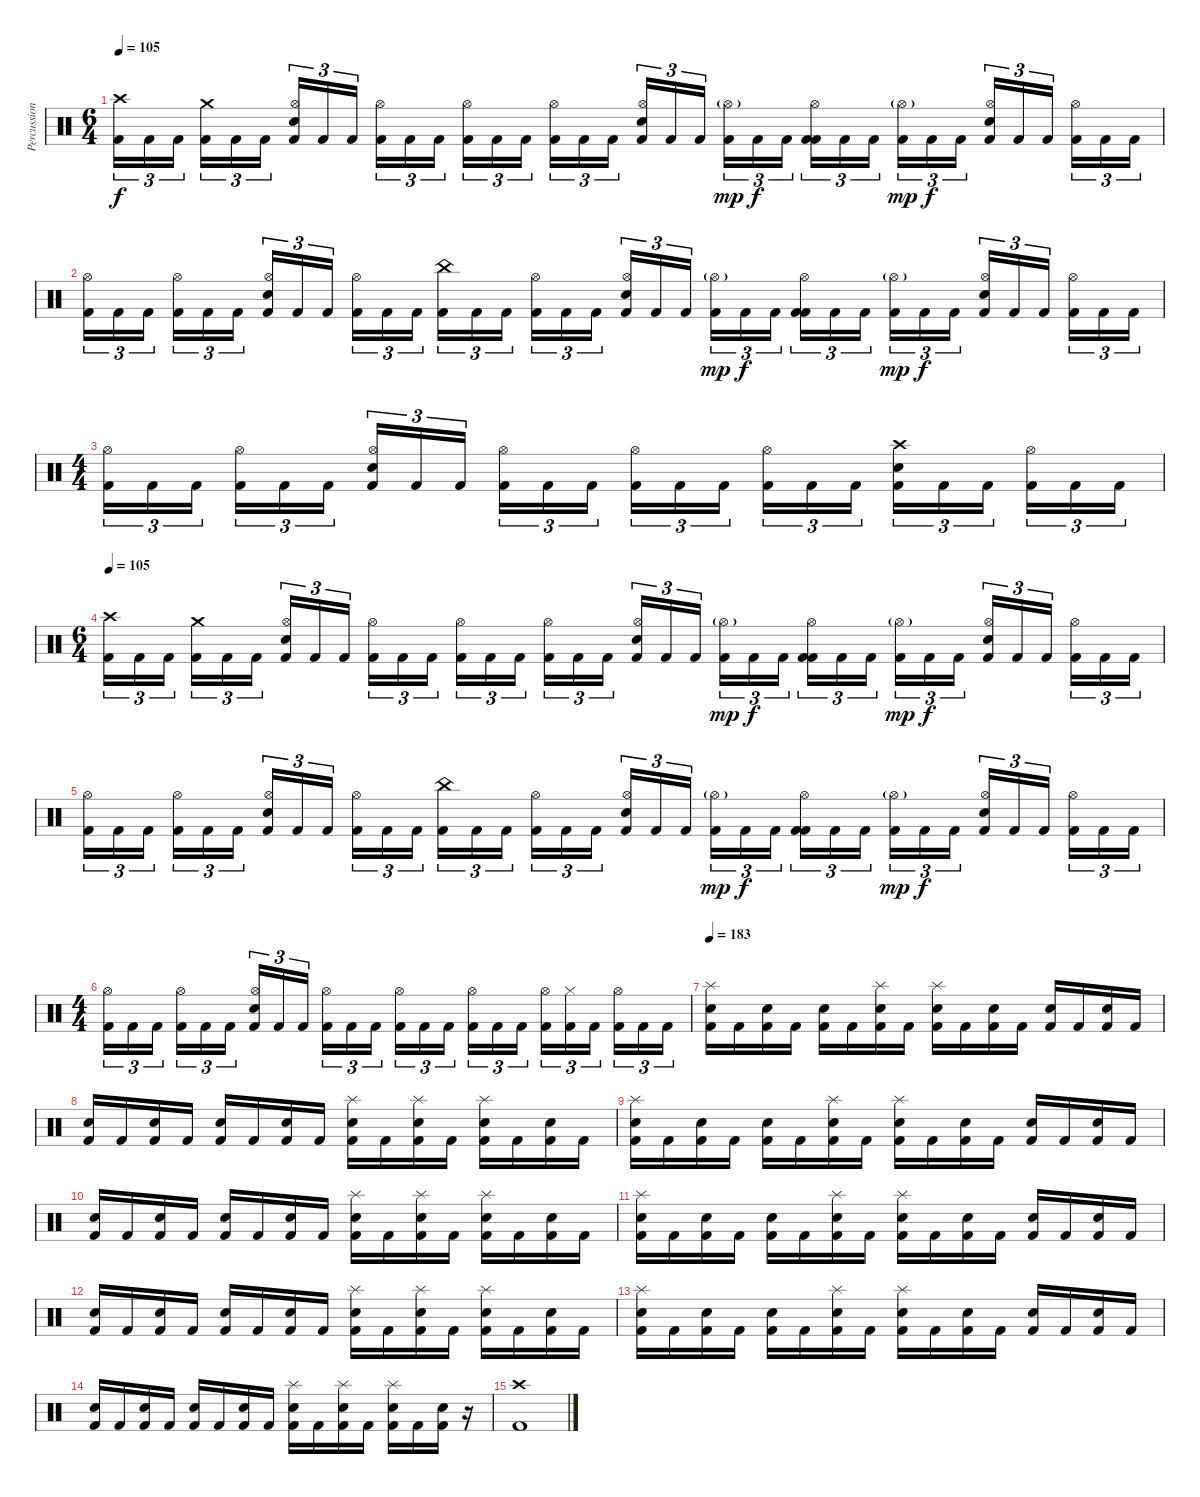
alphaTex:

\track ("Percussion" "Percussion") {instrument percussion}
\staff {score}
\articulation defaults
\ts (6 4)
\tempo 105
\clef neutral
\ks c
("Crash high (hit)" "Kick (hit) 2").16{tu (3 2) dy f} "Kick (hit) 2".16{tu (3 2)} "Kick (hit) 2".16{tu (3 2)} ("Crash medium (hit)" "Kick (hit) 2").16{tu (3 2)} "Kick (hit) 2".16{tu (3 2)} "Kick (hit) 2".16{tu (3 2)} ("Hi-Hat (open)" "Electric Snare (hit)" "Kick (hit) 2").16{tu (3 2)} "Kick (hit) 2".16{tu (3 2)} "Kick (hit) 2".16{tu (3 2)} ("Hi-Hat (open)" "Kick (hit) 2").16{tu (3 2)} "Kick (hit) 2".16{tu (3 2)} "Kick (hit) 2".16{tu (3 2)} ("Hi-Hat (open)" "Kick (hit) 2").16{tu (3 2)} "Kick (hit) 2".16{tu (3 2)} "Kick (hit) 2".16{tu (3 2)} ("Hi-Hat (open)" "Kick (hit) 2").16{tu (3 2)} "Kick (hit) 2".16{tu (3 2)} "Kick (hit) 2".16{tu (3 2)} ("Hi-Hat (open)" "Electric Snare (hit)" "Kick (hit) 2").16{tu (3 2)} "Kick (hit) 2".16{tu (3 2)} "Kick (hit) 2".16{tu (3 2)} ("Hi-Hat (open)"{g} "Kick (hit) 2").16{tu (3 2) dy mp} "Kick (hit) 2".16{tu (3 2) dy f} "Kick (hit) 2".16{tu (3 2)} ("Hi-Hat (open)" "Kick (hit) 2" "Kick (hit) 2").16{tu (3 2)} "Kick (hit) 2".16{tu (3 2)} "Kick (hit) 2".16{tu (3 2)} ("Hi-Hat (open)"{g} "Kick (hit) 2").16{tu (3 2) dy mp} "Kick (hit) 2".16{tu (3 2) dy f} "Kick (hit) 2".16{tu (3 2)} ("Hi-Hat (open)" "Electric Snare (hit)" "Kick (hit) 2").16{tu (3 2)} "Kick (hit) 2".16{tu (3 2)} "Kick (hit) 2".16{tu (3 2)} ("Hi-Hat (open)" "Kick (hit) 2").16{tu (3 2)} "Kick (hit) 2".16{tu (3 2)} "Kick (hit) 2".16{tu (3 2)} |
("Hi-Hat (open)" "Kick (hit) 2").16{tu (3 2)} "Kick (hit) 2".16{tu (3 2)} "Kick (hit) 2".16{tu (3 2)} ("Hi-Hat (open)" "Kick (hit) 2").16{tu (3 2)} "Kick (hit) 2".16{tu (3 2)} "Kick (hit) 2".16{tu (3 2)} ("Hi-Hat (open)" "Electric Snare (hit)" "Kick (hit) 2").16{tu (3 2)} "Kick (hit) 2".16{tu (3 2)} "Kick (hit) 2".16{tu (3 2)} ("Hi-Hat (open)" "Kick (hit) 2").16{tu (3 2)} "Kick (hit) 2".16{tu (3 2)} "Kick (hit) 2".16{tu (3 2)} ("China (hit)" "Kick (hit) 2").16{tu (3 2)} "Kick (hit) 2".16{tu (3 2)} "Kick (hit) 2".16{tu (3 2)} ("Hi-Hat (open)" "Kick (hit) 2").16{tu (3 2)} "Kick (hit) 2".16{tu (3 2)} "Kick (hit) 2".16{tu (3 2)} ("Hi-Hat (open)" "Electric Snare (hit)" "Kick (hit) 2").16{tu (3 2)} "Kick (hit) 2".16{tu (3 2)} "Kick (hit) 2".16{tu (3 2)} ("Hi-Hat (open)"{g} "Kick (hit) 2").16{tu (3 2) dy mp} "Kick (hit) 2".16{tu (3 2) dy f} "Kick (hit) 2".16{tu (3 2)} ("Hi-Hat (open)" "Kick (hit) 2" "Kick (hit) 2").16{tu (3 2)} "Kick (hit) 2".16{tu (3 2)} "Kick (hit) 2".16{tu (3 2)} ("Hi-Hat (open)"{g} "Kick (hit) 2").16{tu (3 2) dy mp} "Kick (hit) 2".16{tu (3 2) dy f} "Kick (hit) 2".16{tu (3 2)} ("Hi-Hat (open)" "Electric Snare (hit)" "Kick (hit) 2").16{tu (3 2)} "Kick (hit) 2".16{tu (3 2)} "Kick (hit) 2".16{tu (3 2)} ("Hi-Hat (open)" "Kick (hit) 2").16{tu (3 2)} "Kick (hit) 2".16{tu (3 2)} "Kick (hit) 2".16{tu (3 2)} |
\ts (4 4)
("Hi-Hat (open)" "Kick (hit) 2").16{tu (3 2)} "Kick (hit) 2".16{tu (3 2)} "Kick (hit) 2".16{tu (3 2)} ("Hi-Hat (open)" "Kick (hit) 2").16{tu (3 2)} "Kick (hit) 2".16{tu (3 2)} "Kick (hit) 2".16{tu (3 2)} ("Hi-Hat (open)" "Electric Snare (hit)" "Kick (hit) 2").16{tu (3 2)} "Kick (hit) 2".16{tu (3 2)} "Kick (hit) 2".16{tu (3 2)} ("Hi-Hat (open)" "Kick (hit) 2").16{tu (3 2)} "Kick (hit) 2".16{tu (3 2)} "Kick (hit) 2".16{tu (3 2)} ("Hi-Hat (open)" "Kick (hit) 2").16{tu (3 2)} "Kick (hit) 2".16{tu (3 2)} "Kick (hit) 2".16{tu (3 2)} ("Hi-Hat (open)" "Kick (hit) 2").16{tu (3 2)} "Kick (hit) 2".16{tu (3 2)} "Kick (hit) 2".16{tu (3 2)} ("Crash high (hit)" "Electric Snare (hit)" "Kick (hit) 2").16{tu (3 2)} "Kick (hit) 2".16{tu (3 2)} "Kick (hit) 2".16{tu (3 2)} ("Hi-Hat (open)" "Kick (hit) 2").16{tu (3 2)} "Kick (hit) 2".16{tu (3 2)} "Kick (hit) 2".16{tu (3 2)} |
\ts (6 4)
\tempo 105
("Crash high (hit)" "Kick (hit) 2").16{tu (3 2)} "Kick (hit) 2".16{tu (3 2)} "Kick (hit) 2".16{tu (3 2)} ("Crash medium (hit)" "Kick (hit) 2").16{tu (3 2)} "Kick (hit) 2".16{tu (3 2)} "Kick (hit) 2".16{tu (3 2)} ("Hi-Hat (open)" "Electric Snare (hit)" "Kick (hit) 2").16{tu (3 2)} "Kick (hit) 2".16{tu (3 2)} "Kick (hit) 2".16{tu (3 2)} ("Hi-Hat (open)" "Kick (hit) 2").16{tu (3 2)} "Kick (hit) 2".16{tu (3 2)} "Kick (hit) 2".16{tu (3 2)} ("Hi-Hat (open)" "Kick (hit) 2").16{tu (3 2)} "Kick (hit) 2".16{tu (3 2)} "Kick (hit) 2".16{tu (3 2)} ("Hi-Hat (open)" "Kick (hit) 2").16{tu (3 2)} "Kick (hit) 2".16{tu (3 2)} "Kick (hit) 2".16{tu (3 2)} ("Hi-Hat (open)" "Electric Snare (hit)" "Kick (hit) 2").16{tu (3 2)} "Kick (hit) 2".16{tu (3 2)} "Kick (hit) 2".16{tu (3 2)} ("Hi-Hat (open)"{g} "Kick (hit) 2").16{tu (3 2) dy mp} "Kick (hit) 2".16{tu (3 2) dy f} "Kick (hit) 2".16{tu (3 2)} ("Hi-Hat (open)" "Kick (hit) 2" "Kick (hit) 2").16{tu (3 2)} "Kick (hit) 2".16{tu (3 2)} "Kick (hit) 2".16{tu (3 2)} ("Hi-Hat (open)"{g} "Kick (hit) 2").16{tu (3 2) dy mp} "Kick (hit) 2".16{tu (3 2) dy f} "Kick (hit) 2".16{tu (3 2)} ("Hi-Hat (open)" "Electric Snare (hit)" "Kick (hit) 2").16{tu (3 2)} "Kick (hit) 2".16{tu (3 2)} "Kick (hit) 2".16{tu (3 2)} ("Hi-Hat (open)" "Kick (hit) 2").16{tu (3 2)} "Kick (hit) 2".16{tu (3 2)} "Kick (hit) 2".16{tu (3 2)} |
("Hi-Hat (open)" "Kick (hit) 2").16{tu (3 2)} "Kick (hit) 2".16{tu (3 2)} "Kick (hit) 2".16{tu (3 2)} ("Hi-Hat (open)" "Kick (hit) 2").16{tu (3 2)} "Kick (hit) 2".16{tu (3 2)} "Kick (hit) 2".16{tu (3 2)} ("Hi-Hat (open)" "Electric Snare (hit)" "Kick (hit) 2").16{tu (3 2)} "Kick (hit) 2".16{tu (3 2)} "Kick (hit) 2".16{tu (3 2)} ("Hi-Hat (open)" "Kick (hit) 2").16{tu (3 2)} "Kick (hit) 2".16{tu (3 2)} "Kick (hit) 2".16{tu (3 2)} ("China (hit)" "Kick (hit) 2").16{tu (3 2)} "Kick (hit) 2".16{tu (3 2)} "Kick (hit) 2".16{tu (3 2)} ("Hi-Hat (open)" "Kick (hit) 2").16{tu (3 2)} "Kick (hit) 2".16{tu (3 2)} "Kick (hit) 2".16{tu (3 2)} ("Hi-Hat (open)" "Electric Snare (hit)" "Kick (hit) 2").16{tu (3 2)} "Kick (hit) 2".16{tu (3 2)} "Kick (hit) 2".16{tu (3 2)} ("Hi-Hat (open)"{g} "Kick (hit) 2").16{tu (3 2) dy mp} "Kick (hit) 2".16{tu (3 2) dy f} "Kick (hit) 2".16{tu (3 2)} ("Hi-Hat (open)" "Kick (hit) 2" "Kick (hit) 2").16{tu (3 2)} "Kick (hit) 2".16{tu (3 2)} "Kick (hit) 2".16{tu (3 2)} ("Hi-Hat (open)"{g} "Kick (hit) 2").16{tu (3 2) dy mp} "Kick (hit) 2".16{tu (3 2) dy f} "Kick (hit) 2".16{tu (3 2)} ("Hi-Hat (open)" "Electric Snare (hit)" "Kick (hit) 2").16{tu (3 2)} "Kick (hit) 2".16{tu (3 2)} "Kick (hit) 2".16{tu (3 2)} ("Hi-Hat (open)" "Kick (hit) 2").16{tu (3 2)} "Kick (hit) 2".16{tu (3 2)} "Kick (hit) 2".16{tu (3 2)} |
\ts (4 4)
("Hi-Hat (open)" "Kick (hit) 2").16{tu (3 2)} "Kick (hit) 2".16{tu (3 2)} "Kick (hit) 2".16{tu (3 2)} ("Hi-Hat (open)" "Kick (hit) 2").16{tu (3 2)} "Kick (hit) 2".16{tu (3 2)} "Kick (hit) 2".16{tu (3 2)} ("Hi-Hat (open)" "Electric Snare (hit)" "Kick (hit) 2").16{tu (3 2)} "Kick (hit) 2".16{tu (3 2)} "Kick (hit) 2".16{tu (3 2)} ("Hi-Hat (open)" "Kick (hit) 2").16{tu (3 2)} "Kick (hit) 2".16{tu (3 2)} "Kick (hit) 2".16{tu (3 2)} ("Hi-Hat (open)" "Kick (hit) 2").16{tu (3 2)} "Kick (hit) 2".16{tu (3 2)} "Kick (hit) 2".16{tu (3 2)} ("Hi-Hat (open)" "Kick (hit) 2").16{tu (3 2)} "Kick (hit) 2".16{tu (3 2)} "Kick (hit) 2".16{tu (3 2)} ("Hi-Hat (open)" "Kick (hit) 2").16{tu (3 2)} ("Hi-Hat (closed)" "Kick (hit) 2").16{tu (3 2)} "Kick (hit) 2".16{tu (3 2)} ("Hi-Hat (open)" "Kick (hit) 2").16{tu (3 2)} "Kick (hit) 2".16{tu (3 2)} "Kick (hit) 2".16{tu (3 2)} |
\tempo 183
("Splash (hit)" "Electric Snare (hit)" "Kick (hit) 2").16 "Kick (hit) 2".16 ("Electric Snare (hit)" "Kick (hit) 2").16 "Kick (hit) 2".16 ("Electric Snare (hit)" "Kick (hit) 2").16 "Kick (hit) 2".16 ("Splash (hit)" "Electric Snare (hit)" "Kick (hit) 2").16 "Kick (hit) 2".16 ("Splash (hit)" "Electric Snare (hit)" "Kick (hit) 2").16 "Kick (hit) 2".16 ("Electric Snare (hit)" "Kick (hit) 2").16 "Kick (hit) 2".16 ("Electric Snare (hit)" "Kick (hit) 2").16 "Kick (hit) 2".16 ("Electric Snare (hit)" "Kick (hit) 2").16 "Kick (hit) 2".16 |
("Electric Snare (hit)" "Kick (hit) 2").16 "Kick (hit) 2".16 ("Electric Snare (hit)" "Kick (hit) 2").16 "Kick (hit) 2".16 ("Electric Snare (hit)" "Kick (hit) 2").16 "Kick (hit) 2".16 ("Electric Snare (hit)" "Kick (hit) 2").16 "Kick (hit) 2".16 ("Splash (hit)" "Electric Snare (hit)" "Kick (hit) 2").16 "Kick (hit) 2".16 ("Splash (hit)" "Electric Snare (hit)" "Kick (hit) 2").16 "Kick (hit) 2".16 ("Splash (hit)" "Electric Snare (hit)" "Kick (hit) 2").16 "Kick (hit) 2".16 ("Electric Snare (hit)" "Kick (hit) 2").16 "Kick (hit) 2".16 |
("Splash (hit)" "Electric Snare (hit)" "Kick (hit) 2").16 "Kick (hit) 2".16 ("Electric Snare (hit)" "Kick (hit) 2").16 "Kick (hit) 2".16 ("Electric Snare (hit)" "Kick (hit) 2").16 "Kick (hit) 2".16 ("Splash (hit)" "Electric Snare (hit)" "Kick (hit) 2").16 "Kick (hit) 2".16 ("Splash (hit)" "Electric Snare (hit)" "Kick (hit) 2").16 "Kick (hit) 2".16 ("Electric Snare (hit)" "Kick (hit) 2").16 "Kick (hit) 2".16 ("Electric Snare (hit)" "Kick (hit) 2").16 "Kick (hit) 2".16 ("Electric Snare (hit)" "Kick (hit) 2").16 "Kick (hit) 2".16 |
("Electric Snare (hit)" "Kick (hit) 2").16 "Kick (hit) 2".16 ("Electric Snare (hit)" "Kick (hit) 2").16 "Kick (hit) 2".16 ("Electric Snare (hit)" "Kick (hit) 2").16 "Kick (hit) 2".16 ("Electric Snare (hit)" "Kick (hit) 2").16 "Kick (hit) 2".16 ("Splash (hit)" "Electric Snare (hit)" "Kick (hit) 2").16 "Kick (hit) 2".16 ("Splash (hit)" "Electric Snare (hit)" "Kick (hit) 2").16 "Kick (hit) 2".16 ("Splash (hit)" "Electric Snare (hit)" "Kick (hit) 2").16 "Kick (hit) 2".16 ("Electric Snare (hit)" "Kick (hit) 2").16 "Kick (hit) 2".16 |
("Splash (hit)" "Electric Snare (hit)" "Kick (hit) 2").16 "Kick (hit) 2".16 ("Electric Snare (hit)" "Kick (hit) 2").16 "Kick (hit) 2".16 ("Electric Snare (hit)" "Kick (hit) 2").16 "Kick (hit) 2".16 ("Splash (hit)" "Electric Snare (hit)" "Kick (hit) 2").16 "Kick (hit) 2".16 ("Splash (hit)" "Electric Snare (hit)" "Kick (hit) 2").16 "Kick (hit) 2".16 ("Electric Snare (hit)" "Kick (hit) 2").16 "Kick (hit) 2".16 ("Electric Snare (hit)" "Kick (hit) 2").16 "Kick (hit) 2".16 ("Electric Snare (hit)" "Kick (hit) 2").16 "Kick (hit) 2".16 |
("Electric Snare (hit)" "Kick (hit) 2").16 "Kick (hit) 2".16 ("Electric Snare (hit)" "Kick (hit) 2").16 "Kick (hit) 2".16 ("Electric Snare (hit)" "Kick (hit) 2").16 "Kick (hit) 2".16 ("Electric Snare (hit)" "Kick (hit) 2").16 "Kick (hit) 2".16 ("Splash (hit)" "Electric Snare (hit)" "Kick (hit) 2").16 "Kick (hit) 2".16 ("Splash (hit)" "Electric Snare (hit)" "Kick (hit) 2").16 "Kick (hit) 2".16 ("Splash (hit)" "Electric Snare (hit)" "Kick (hit) 2").16 "Kick (hit) 2".16 ("Electric Snare (hit)" "Kick (hit) 2").16 "Kick (hit) 2".16 |
("Splash (hit)" "Electric Snare (hit)" "Kick (hit) 2").16 "Kick (hit) 2".16 ("Electric Snare (hit)" "Kick (hit) 2").16 "Kick (hit) 2".16 ("Electric Snare (hit)" "Kick (hit) 2").16 "Kick (hit) 2".16 ("Splash (hit)" "Electric Snare (hit)" "Kick (hit) 2").16 "Kick (hit) 2".16 ("Splash (hit)" "Electric Snare (hit)" "Kick (hit) 2").16 "Kick (hit) 2".16 ("Electric Snare (hit)" "Kick (hit) 2").16 "Kick (hit) 2".16 ("Electric Snare (hit)" "Kick (hit) 2").16 "Kick (hit) 2".16 ("Electric Snare (hit)" "Kick (hit) 2").16 "Kick (hit) 2".16 |
("Electric Snare (hit)" "Kick (hit) 2").16 "Kick (hit) 2".16 ("Electric Snare (hit)" "Kick (hit) 2").16 "Kick (hit) 2".16 ("Electric Snare (hit)" "Kick (hit) 2").16 "Kick (hit) 2".16 ("Electric Snare (hit)" "Kick (hit) 2").16 "Kick (hit) 2".16 ("Splash (hit)" "Electric Snare (hit)" "Kick (hit) 2").16 "Kick (hit) 2".16 ("Splash (hit)" "Electric Snare (hit)" "Kick (hit) 2").16 "Kick (hit) 2".16 ("Splash (hit)" "Electric Snare (hit)" "Kick (hit) 2").16 "Kick (hit) 2".16 ("Electric Snare (hit)" "Kick (hit) 2").16 r.16 |
("Crash high (hit)" "Kick (hit) 2").1
